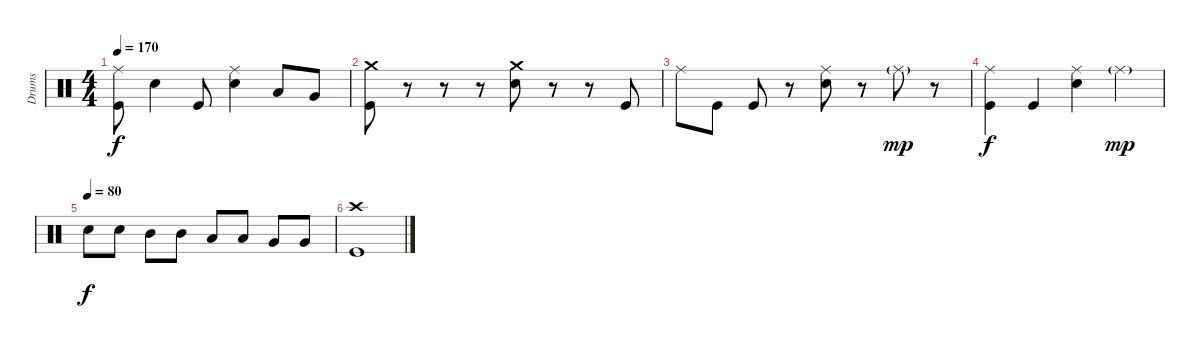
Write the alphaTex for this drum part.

\track ("Drums" "Drums") {instrument percussion}
\staff {score}
\articulation defaults
\ts (4 4)
\tempo 170
\clef neutral
\ks c
("Ride (middle)" "Kick (hit)").8{dy f} "Electric Snare (hit)".4 "Kick (hit)".8 ("Ride (middle)" "Electric Snare (hit)").4 "Low Tom (hit)".8 "Very Low Tom (hit)".8 |
("Crash medium (hit)" "Kick (hit)").8 r.8 r.8 r.8 ("Crash medium (hit)" "Electric Snare (hit)").8 r.8 r.8 "Kick (hit)".8 |
"Ride (middle)".8 "Kick (hit)".8 "Kick (hit)".8 r.8 ("Ride (middle)" "Electric Snare (hit)").8 r.8 "Ride (middle)"{g}.8{dy mp} r.8 |
("Ride (middle)" "Kick (hit)").4{dy f} "Kick (hit)".4 ("Ride (middle)" "Electric Snare (hit)").4 "Ride (middle)"{g}.4{dy mp} |
\tempo (80)
"Electric Snare (hit)".8{dy f} "Electric Snare (hit)".8 "Mid Tom (hit)".8 "Mid Tom (hit)".8 "Low Tom (hit)".8 "Low Tom (hit)".8 "Very Low Tom (hit)".8 "Very Low Tom (hit)".8 |
("Crash high (hit)" "Kick (hit)").1
